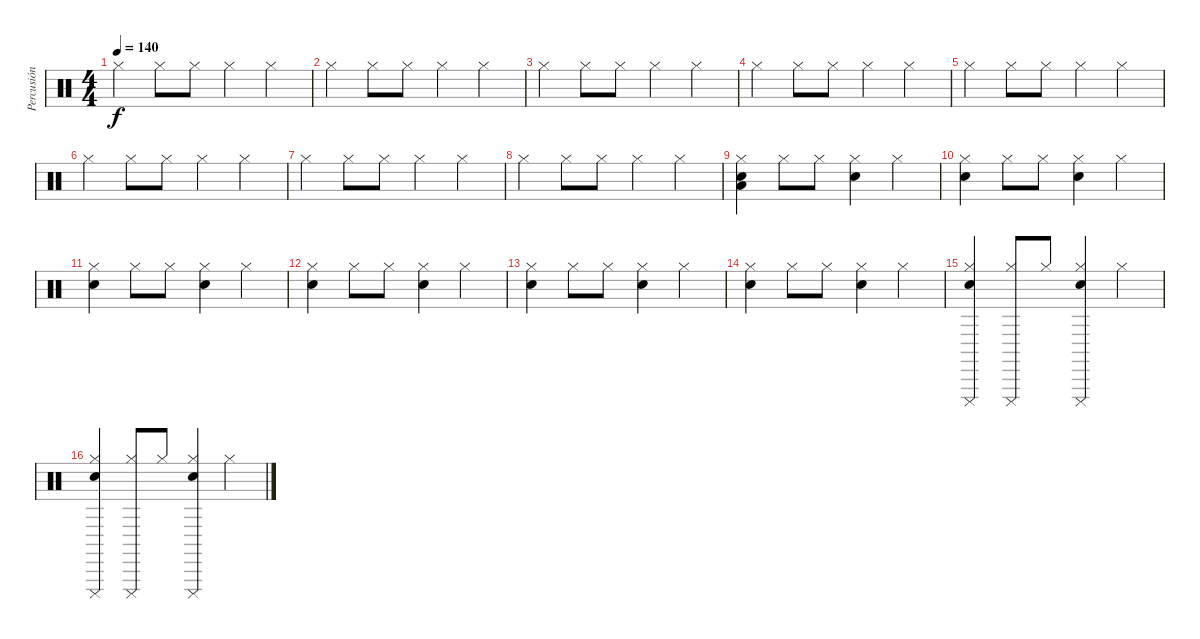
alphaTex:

\track ("Percusión" "Percusión") {instrument percussion}
\staff {score}
\articulation defaults
\ts (4 4)
\tempo 140
\clef neutral
\ks c "Hi-Hat (closed)".4{dy f} "Hi-Hat (closed)".8 "Hi-Hat (closed)".8 "Hi-Hat (closed)".4 "Hi-Hat (closed)".4
|
"Hi-Hat (closed)".4 "Hi-Hat (closed)".8 "Hi-Hat (closed)".8 "Hi-Hat (closed)".4 "Hi-Hat (closed)".4 |
"Hi-Hat (closed)".4 "Hi-Hat (closed)".8 "Hi-Hat (closed)".8 "Hi-Hat (closed)".4 "Hi-Hat (closed)".4 |
"Hi-Hat (closed)".4 "Hi-Hat (closed)".8 "Hi-Hat (closed)".8 "Hi-Hat (closed)".4 "Hi-Hat (closed)".4 |
"Hi-Hat (closed)".4 "Hi-Hat (closed)".8 "Hi-Hat (closed)".8 "Hi-Hat (closed)".4 "Hi-Hat (closed)".4 |
"Hi-Hat (closed)".4 "Hi-Hat (closed)".8 "Hi-Hat (closed)".8 "Hi-Hat (closed)".4 "Hi-Hat (closed)".4 |
"Hi-Hat (closed)".4 "Hi-Hat (closed)".8 "Hi-Hat (closed)".8 "Hi-Hat (closed)".4 "Hi-Hat (closed)".4 |
"Hi-Hat (closed)".4 "Hi-Hat (closed)".8 "Hi-Hat (closed)".8 "Hi-Hat (closed)".4 "Hi-Hat (closed)".4 |
("Low Tom (hit)" "Snare (hit) 2" "Hi-Hat (closed)").4 "Hi-Hat (closed)".8 "Hi-Hat (closed)".8 ("Snare (hit) 2" "Hi-Hat (closed)").4 "Hi-Hat (closed)".4 |
("Snare (hit) 2" "Hi-Hat (closed)").4 "Hi-Hat (closed)".8 "Hi-Hat (closed)".8 ("Snare (hit) 2" "Hi-Hat (closed)").4 "Hi-Hat (closed)".4 |
("Snare (hit) 2" "Hi-Hat (closed)").4 "Hi-Hat (closed)".8 "Hi-Hat (closed)".8 ("Snare (hit) 2" "Hi-Hat (closed)").4 "Hi-Hat (closed)".4 |
("Snare (hit) 2" "Hi-Hat (closed)").4 "Hi-Hat (closed)".8 "Hi-Hat (closed)".8 ("Snare (hit) 2" "Hi-Hat (closed)").4 "Hi-Hat (closed)".4 |
("Snare (hit) 2" "Hi-Hat (closed)").4 "Hi-Hat (closed)".8 "Hi-Hat (closed)".8 ("Snare (hit) 2" "Hi-Hat (closed)").4 "Hi-Hat (closed)".4 |
("Snare (hit) 2" "Hi-Hat (closed)").4 "Hi-Hat (closed)".8 "Hi-Hat (closed)".8 ("Snare (hit) 2" "Hi-Hat (closed)").4 "Hi-Hat (closed)".4 |
("Snare (hit) 2" "Cuica (mute)" "Hi-Hat (closed)").4 ("Cuica (mute)" "Hi-Hat (closed)").8 "Hi-Hat (closed)".8 ("Snare (hit) 2" "Cuica (mute)" "Hi-Hat (closed)").4 "Hi-Hat (closed)".4 |
("Snare (hit) 2" "Cuica (mute)" "Hi-Hat (closed)").4 ("Cuica (mute)" "Hi-Hat (closed)").8 "Hi-Hat (closed)".8 ("Snare (hit) 2" "Cuica (mute)" "Hi-Hat (closed)").4 "Hi-Hat (closed)".4
